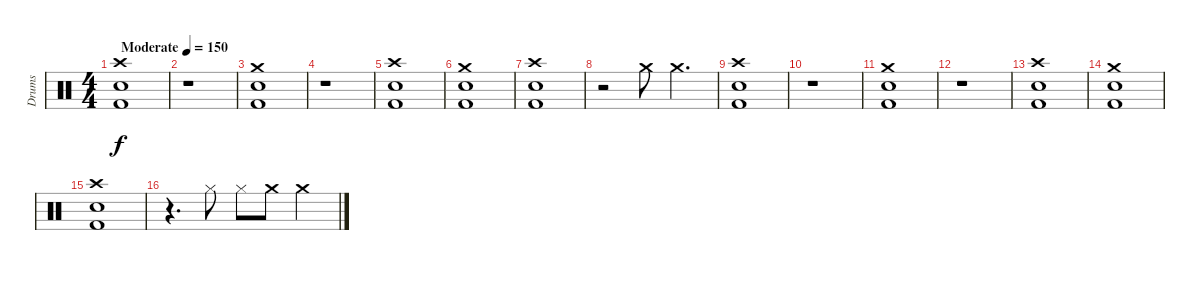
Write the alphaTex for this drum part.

\track ("Drums" "Drums") {instrument percussion}
\staff {score}
\articulation defaults
\ts (4 4)
\tempo (150 "Moderate")
\clef neutral
\ks c
("Crash high (hit)" "Snare (hit) 2" "Kick (hit) 2").1{dy f} |
r.1 |
("Crash medium (hit)" "Snare (hit) 2" "Kick (hit) 2").1 |
r.1 |
("Crash high (hit)" "Snare (hit) 2" "Kick (hit) 2").1 |
("Crash medium (hit)" "Snare (hit) 2" "Kick (hit) 2").1 |
("Crash high (hit)" "Snare (hit) 2" "Kick (hit) 2").1 |
r.2 "Crash medium (hit)".8 "Crash medium (hit)".4{d} |
("Crash high (hit)" "Snare (hit) 2" "Kick (hit) 2").1 |
r.1 |
("Crash medium (hit)" "Snare (hit) 2" "Kick (hit) 2").1 |
r.1 |
("Crash high (hit)" "Snare (hit) 2" "Kick (hit) 2").1 |
("Crash medium (hit)" "Snare (hit) 2" "Kick (hit) 2").1 |
("Crash high (hit)" "Snare (hit) 2" "Kick (hit) 2").1 |
r.4{d} "Hi-Hat (closed)".8 "Hi-Hat (closed)".8 "Crash medium (hit)".8 "Crash medium (hit)".4
